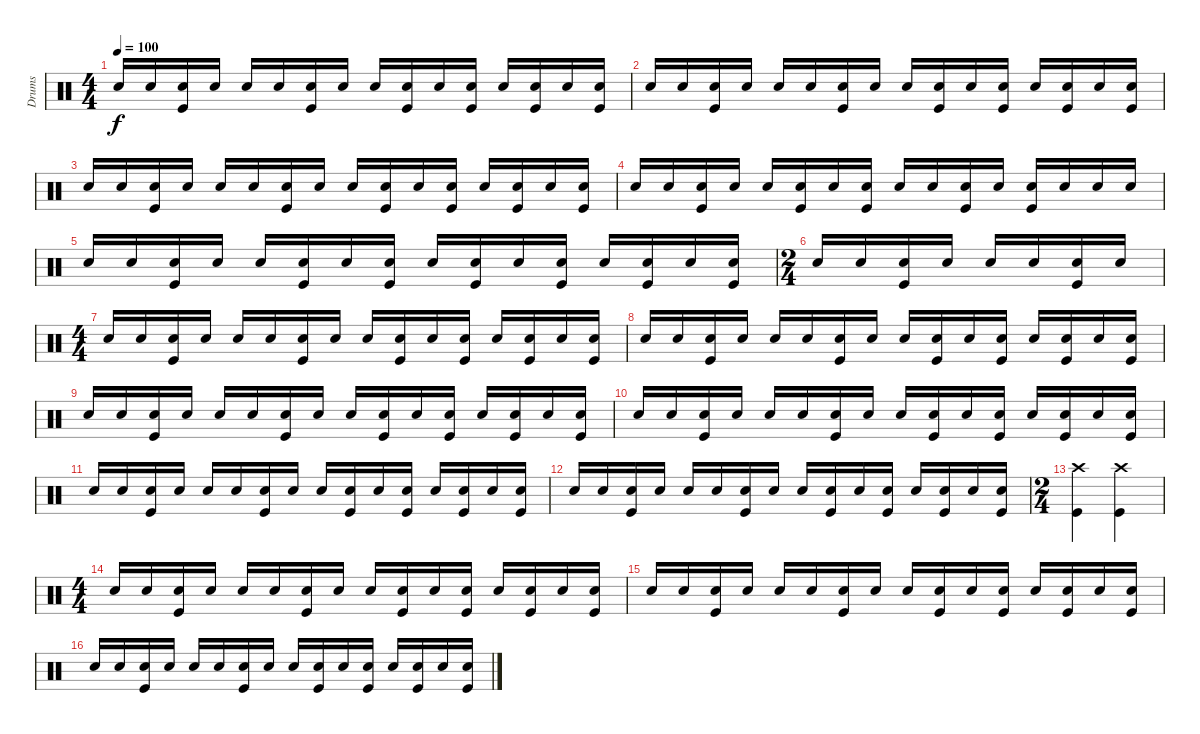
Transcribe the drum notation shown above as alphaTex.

\track ("Drums" "Drums") {instrument percussion}
\staff {score}
\articulation defaults
\ts (4 4)
\tempo 100
\clef neutral
\ks c "Snare (hit) 2".16{dy f} "Snare (hit) 2".16
("Snare (hit) 2" "Kick (hit)").16 "Snare (hit) 2".16 "Snare (hit) 2".16 "Snare (hit) 2".16 ("Snare (hit) 2" "Kick (hit)").16 "Snare (hit) 2".16 "Snare (hit) 2".16 ("Snare (hit) 2" "Kick (hit)").16 "Snare (hit) 2".16 ("Snare (hit) 2" "Kick (hit)").16 "Snare (hit) 2".16 ("Snare (hit) 2" "Kick (hit)").16 "Snare (hit) 2".16 ("Snare (hit) 2" "Kick (hit)").16 |
"Snare (hit) 2".16 "Snare (hit) 2".16 ("Snare (hit) 2" "Kick (hit)").16 "Snare (hit) 2".16 "Snare (hit) 2".16 "Snare (hit) 2".16 ("Snare (hit) 2" "Kick (hit)").16 "Snare (hit) 2".16 "Snare (hit) 2".16 ("Snare (hit) 2" "Kick (hit)").16 "Snare (hit) 2".16 ("Snare (hit) 2" "Kick (hit)").16 "Snare (hit) 2".16 ("Snare (hit) 2" "Kick (hit)").16 "Snare (hit) 2".16 ("Snare (hit) 2" "Kick (hit)").16 |
"Snare (hit) 2".16 "Snare (hit) 2".16 ("Snare (hit) 2" "Kick (hit)").16 "Snare (hit) 2".16 "Snare (hit) 2".16 "Snare (hit) 2".16 ("Snare (hit) 2" "Kick (hit)").16 "Snare (hit) 2".16 "Snare (hit) 2".16 ("Snare (hit) 2" "Kick (hit)").16 "Snare (hit) 2".16 ("Snare (hit) 2" "Kick (hit)").16 "Snare (hit) 2".16 ("Snare (hit) 2" "Kick (hit)").16 "Snare (hit) 2".16 ("Snare (hit) 2" "Kick (hit)").16 |
"Snare (hit) 2".16 "Snare (hit) 2".16 ("Snare (hit) 2" "Kick (hit)").16 "Snare (hit) 2".16 "Snare (hit) 2".16 ("Snare (hit) 2" "Kick (hit)").16 "Snare (hit) 2".16 ("Snare (hit) 2" "Kick (hit)").16 "Snare (hit) 2".16 "Snare (hit) 2".16 ("Snare (hit) 2" "Kick (hit)").16 "Snare (hit) 2".16 ("Snare (hit) 2" "Kick (hit)").16 "Snare (hit) 2".16 "Snare (hit) 2".16 "Snare (hit) 2".16 |
"Snare (hit) 2".16 "Snare (hit) 2".16 ("Snare (hit) 2" "Kick (hit)").16 "Snare (hit) 2".16 "Snare (hit) 2".16 ("Snare (hit) 2" "Kick (hit)").16 "Snare (hit) 2".16 ("Snare (hit) 2" "Kick (hit)").16 "Snare (hit) 2".16 ("Snare (hit) 2" "Kick (hit)").16 "Snare (hit) 2".16 ("Snare (hit) 2" "Kick (hit)").16 "Snare (hit) 2".16 ("Snare (hit) 2" "Kick (hit)").16 "Snare (hit) 2".16 ("Snare (hit) 2" "Kick (hit)").16 |
\ts (2 4)
"Snare (hit) 2".16 "Snare (hit) 2".16 ("Snare (hit) 2" "Kick (hit)").16 "Snare (hit) 2".16 "Snare (hit) 2".16 "Snare (hit) 2".16 ("Snare (hit) 2" "Kick (hit)").16 "Snare (hit) 2".16 |
\ts (4 4)
"Snare (hit) 2".16 "Snare (hit) 2".16 ("Snare (hit) 2" "Kick (hit)").16 "Snare (hit) 2".16 "Snare (hit) 2".16 "Snare (hit) 2".16 ("Snare (hit) 2" "Kick (hit)").16 "Snare (hit) 2".16 "Snare (hit) 2".16 ("Snare (hit) 2" "Kick (hit)").16 "Snare (hit) 2".16 ("Snare (hit) 2" "Kick (hit)").16 "Snare (hit) 2".16 ("Snare (hit) 2" "Kick (hit)").16 "Snare (hit) 2".16 ("Snare (hit) 2" "Kick (hit)").16 |
"Snare (hit) 2".16 "Snare (hit) 2".16 ("Snare (hit) 2" "Kick (hit)").16 "Snare (hit) 2".16 "Snare (hit) 2".16 "Snare (hit) 2".16 ("Snare (hit) 2" "Kick (hit)").16 "Snare (hit) 2".16 "Snare (hit) 2".16 ("Snare (hit) 2" "Kick (hit)").16 "Snare (hit) 2".16 ("Snare (hit) 2" "Kick (hit)").16 "Snare (hit) 2".16 ("Snare (hit) 2" "Kick (hit)").16 "Snare (hit) 2".16 ("Snare (hit) 2" "Kick (hit)").16 |
"Snare (hit) 2".16 "Snare (hit) 2".16 ("Snare (hit) 2" "Kick (hit)").16 "Snare (hit) 2".16 "Snare (hit) 2".16 "Snare (hit) 2".16 ("Snare (hit) 2" "Kick (hit)").16 "Snare (hit) 2".16 "Snare (hit) 2".16 ("Snare (hit) 2" "Kick (hit)").16 "Snare (hit) 2".16 ("Snare (hit) 2" "Kick (hit)").16 "Snare (hit) 2".16 ("Snare (hit) 2" "Kick (hit)").16 "Snare (hit) 2".16 ("Snare (hit) 2" "Kick (hit)").16 |
"Snare (hit) 2".16 "Snare (hit) 2".16 ("Snare (hit) 2" "Kick (hit)").16 "Snare (hit) 2".16 "Snare (hit) 2".16 "Snare (hit) 2".16 ("Snare (hit) 2" "Kick (hit)").16 "Snare (hit) 2".16 "Snare (hit) 2".16 ("Snare (hit) 2" "Kick (hit)").16 "Snare (hit) 2".16 ("Snare (hit) 2" "Kick (hit)").16 "Snare (hit) 2".16 ("Snare (hit) 2" "Kick (hit)").16 "Snare (hit) 2".16 ("Snare (hit) 2" "Kick (hit)").16 |
"Snare (hit) 2".16 "Snare (hit) 2".16 ("Snare (hit) 2" "Kick (hit)").16 "Snare (hit) 2".16 "Snare (hit) 2".16 "Snare (hit) 2".16 ("Snare (hit) 2" "Kick (hit)").16 "Snare (hit) 2".16 "Snare (hit) 2".16 ("Snare (hit) 2" "Kick (hit)").16 "Snare (hit) 2".16 ("Snare (hit) 2" "Kick (hit)").16 "Snare (hit) 2".16 ("Snare (hit) 2" "Kick (hit)").16 "Snare (hit) 2".16 ("Snare (hit) 2" "Kick (hit)").16 |
"Snare (hit) 2".16 "Snare (hit) 2".16 ("Snare (hit) 2" "Kick (hit)").16 "Snare (hit) 2".16 "Snare (hit) 2".16 "Snare (hit) 2".16 ("Snare (hit) 2" "Kick (hit)").16 "Snare (hit) 2".16 "Snare (hit) 2".16 ("Snare (hit) 2" "Kick (hit)").16 "Snare (hit) 2".16 ("Snare (hit) 2" "Kick (hit)").16 "Snare (hit) 2".16 ("Snare (hit) 2" "Kick (hit)").16 "Snare (hit) 2".16 ("Snare (hit) 2" "Kick (hit)").16 |
\ts (2 4)
("Crash high (hit)" "Kick (hit)").4 ("Crash high (hit)" "Kick (hit)").4 |
\ts (4 4)
"Snare (hit) 2".16 "Snare (hit) 2".16 ("Snare (hit) 2" "Kick (hit)").16 "Snare (hit) 2".16 "Snare (hit) 2".16 "Snare (hit) 2".16 ("Snare (hit) 2" "Kick (hit)").16 "Snare (hit) 2".16 "Snare (hit) 2".16 ("Snare (hit) 2" "Kick (hit)").16 "Snare (hit) 2".16 ("Snare (hit) 2" "Kick (hit)").16 "Snare (hit) 2".16 ("Snare (hit) 2" "Kick (hit)").16 "Snare (hit) 2".16 ("Snare (hit) 2" "Kick (hit)").16 |
"Snare (hit) 2".16 "Snare (hit) 2".16 ("Snare (hit) 2" "Kick (hit)").16 "Snare (hit) 2".16 "Snare (hit) 2".16 "Snare (hit) 2".16 ("Snare (hit) 2" "Kick (hit)").16 "Snare (hit) 2".16 "Snare (hit) 2".16 ("Snare (hit) 2" "Kick (hit)").16 "Snare (hit) 2".16 ("Snare (hit) 2" "Kick (hit)").16 "Snare (hit) 2".16 ("Snare (hit) 2" "Kick (hit)").16 "Snare (hit) 2".16 ("Snare (hit) 2" "Kick (hit)").16 |
"Snare (hit) 2".16 "Snare (hit) 2".16 ("Snare (hit) 2" "Kick (hit)").16 "Snare (hit) 2".16 "Snare (hit) 2".16 "Snare (hit) 2".16 ("Snare (hit) 2" "Kick (hit)").16 "Snare (hit) 2".16 "Snare (hit) 2".16 ("Snare (hit) 2" "Kick (hit)").16 "Snare (hit) 2".16 ("Snare (hit) 2" "Kick (hit)").16 "Snare (hit) 2".16 ("Snare (hit) 2" "Kick (hit)").16 "Snare (hit) 2".16 ("Snare (hit) 2" "Kick (hit)").16
